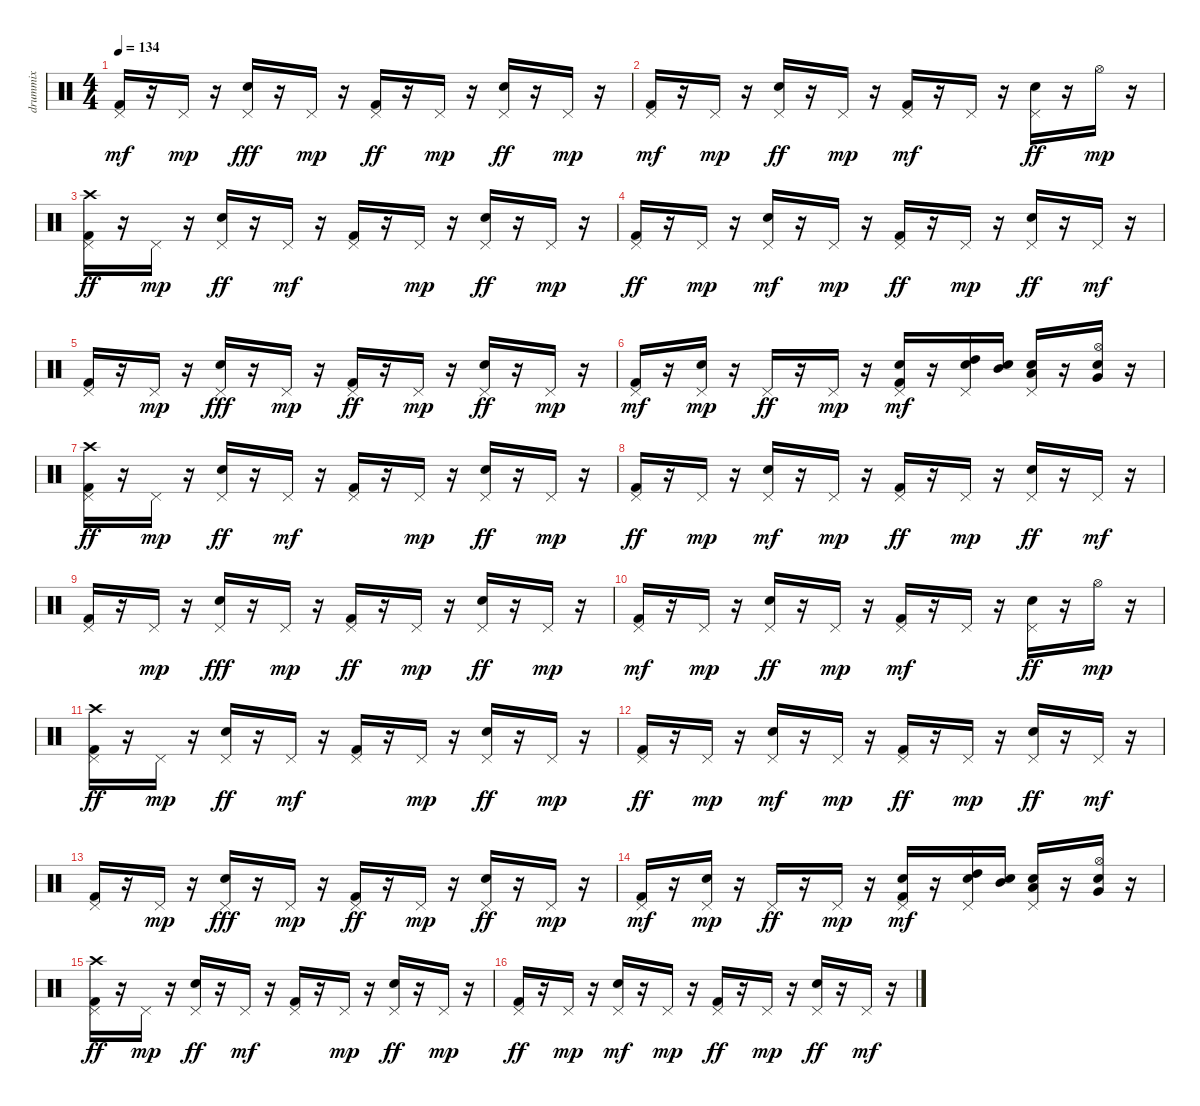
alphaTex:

\track ("drummix" "drummix") {instrument percussion}
\staff {score}
\articulation defaults
\ts (4 4)
\tempo 134
\clef neutral
\ks c
("Kick (hit) 2" "Pedal Hi-Hat (hit)").16{dy mf} r.16 "Pedal Hi-Hat (hit)".16{dy mp} r.16 ("Snare (hit) 2" "Pedal Hi-Hat (hit)").16{dy fff} r.16 "Pedal Hi-Hat (hit)".16{dy mp} r.16 ("Kick (hit) 2" "Pedal Hi-Hat (hit)").16{dy ff} r.16 "Pedal Hi-Hat (hit)".16{dy mp} r.16 ("Snare (hit) 2" "Pedal Hi-Hat (hit)").16{dy ff} r.16 "Pedal Hi-Hat (hit)".16{dy mp} r.16 |
("Kick (hit) 2" "Pedal Hi-Hat (hit)").16{dy mf} r.16 "Pedal Hi-Hat (hit)".16{dy mp} r.16 ("Snare (hit) 2" "Pedal Hi-Hat (hit)").16{dy ff} r.16 "Pedal Hi-Hat (hit)".16{dy mp} r.16 ("Kick (hit) 2" "Pedal Hi-Hat (hit)").16{dy mf} r.16 "Pedal Hi-Hat (hit)".16 r.16 ("Snare (hit) 2" "Pedal Hi-Hat (hit)").16{dy ff} r.16 "Hi-Hat (open)".16{dy mp} r.16 |
("Kick (hit) 2" "Pedal Hi-Hat (hit)" "Crash high (hit)").16{dy ff} r.16 "Pedal Hi-Hat (hit)".16{dy mp} r.16 ("Snare (hit) 2" "Pedal Hi-Hat (hit)").16{dy ff} r.16 "Pedal Hi-Hat (hit)".16{dy mf} r.16 ("Kick (hit) 2" "Pedal Hi-Hat (hit)").16 r.16 "Pedal Hi-Hat (hit)".16{dy mp} r.16 ("Snare (hit) 2" "Pedal Hi-Hat (hit)").16{dy ff} r.16 "Pedal Hi-Hat (hit)".16{dy mp} r.16 |
("Kick (hit) 2" "Pedal Hi-Hat (hit)").16{dy ff} r.16 "Pedal Hi-Hat (hit)".16{dy mp} r.16 ("Snare (hit) 2" "Pedal Hi-Hat (hit)").16{dy mf} r.16 "Pedal Hi-Hat (hit)".16{dy mp} r.16 ("Kick (hit) 2" "Pedal Hi-Hat (hit)").16{dy ff} r.16 "Pedal Hi-Hat (hit)".16{dy mp} r.16 ("Snare (hit) 2" "Pedal Hi-Hat (hit)").16{dy ff} r.16 "Pedal Hi-Hat (hit)".16{dy mf} r.16 |
("Kick (hit) 2" "Pedal Hi-Hat (hit)").16 r.16 "Pedal Hi-Hat (hit)".16{dy mp} r.16 ("Snare (hit) 2" "Pedal Hi-Hat (hit)").16{dy fff} r.16 "Pedal Hi-Hat (hit)".16{dy mp} r.16 ("Kick (hit) 2" "Pedal Hi-Hat (hit)").16{dy ff} r.16 "Pedal Hi-Hat (hit)".16{dy mp} r.16 ("Snare (hit) 2" "Pedal Hi-Hat (hit)").16{dy ff} r.16 "Pedal Hi-Hat (hit)".16{dy mp} r.16 |
("Kick (hit) 2" "Pedal Hi-Hat (hit)").16{dy mf} r.16 ("Snare (hit) 2" "Pedal Hi-Hat (hit)").16{dy mp} r.16 "Pedal Hi-Hat (hit)".16{dy ff} r.16 "Pedal Hi-Hat (hit)".16{dy mp} r.16 ("Kick (hit) 2" "Snare (hit) 2" "Pedal Hi-Hat (hit)").16{dy mf} r.16 ("Snare (hit) 2" "Pedal Hi-Hat (hit)" "High Tom (hit)").16 ("Snare (hit) 2" "Mid Tom (hit)").16 ("Snare (hit) 2" "Pedal Hi-Hat (hit)" "Low Tom (hit)").16 r.16 ("Snare (hit) 2" "Hi-Hat (open)" "Very Low Tom (hit)").16 r.16 |
("Kick (hit) 2" "Pedal Hi-Hat (hit)" "Crash high (hit)").16{dy ff} r.16 "Pedal Hi-Hat (hit)".16{dy mp} r.16 ("Snare (hit) 2" "Pedal Hi-Hat (hit)").16{dy ff} r.16 "Pedal Hi-Hat (hit)".16{dy mf} r.16 ("Kick (hit) 2" "Pedal Hi-Hat (hit)").16 r.16 "Pedal Hi-Hat (hit)".16{dy mp} r.16 ("Snare (hit) 2" "Pedal Hi-Hat (hit)").16{dy ff} r.16 "Pedal Hi-Hat (hit)".16{dy mp} r.16 |
("Kick (hit) 2" "Pedal Hi-Hat (hit)").16{dy ff} r.16 "Pedal Hi-Hat (hit)".16{dy mp} r.16 ("Snare (hit) 2" "Pedal Hi-Hat (hit)").16{dy mf} r.16 "Pedal Hi-Hat (hit)".16{dy mp} r.16 ("Kick (hit) 2" "Pedal Hi-Hat (hit)").16{dy ff} r.16 "Pedal Hi-Hat (hit)".16{dy mp} r.16 ("Snare (hit) 2" "Pedal Hi-Hat (hit)").16{dy ff} r.16 "Pedal Hi-Hat (hit)".16{dy mf} r.16 |
("Kick (hit) 2" "Pedal Hi-Hat (hit)").16 r.16 "Pedal Hi-Hat (hit)".16{dy mp} r.16 ("Snare (hit) 2" "Pedal Hi-Hat (hit)").16{dy fff} r.16 "Pedal Hi-Hat (hit)".16{dy mp} r.16 ("Kick (hit) 2" "Pedal Hi-Hat (hit)").16{dy ff} r.16 "Pedal Hi-Hat (hit)".16{dy mp} r.16 ("Snare (hit) 2" "Pedal Hi-Hat (hit)").16{dy ff} r.16 "Pedal Hi-Hat (hit)".16{dy mp} r.16 |
("Kick (hit) 2" "Pedal Hi-Hat (hit)").16{dy mf} r.16 "Pedal Hi-Hat (hit)".16{dy mp} r.16 ("Snare (hit) 2" "Pedal Hi-Hat (hit)").16{dy ff} r.16 "Pedal Hi-Hat (hit)".16{dy mp} r.16 ("Kick (hit) 2" "Pedal Hi-Hat (hit)").16{dy mf} r.16 "Pedal Hi-Hat (hit)".16 r.16 ("Snare (hit) 2" "Pedal Hi-Hat (hit)").16{dy ff} r.16 "Hi-Hat (open)".16{dy mp} r.16 |
("Kick (hit) 2" "Pedal Hi-Hat (hit)" "Crash high (hit)").16{dy ff} r.16 "Pedal Hi-Hat (hit)".16{dy mp} r.16 ("Snare (hit) 2" "Pedal Hi-Hat (hit)").16{dy ff} r.16 "Pedal Hi-Hat (hit)".16{dy mf} r.16 ("Kick (hit) 2" "Pedal Hi-Hat (hit)").16 r.16 "Pedal Hi-Hat (hit)".16{dy mp} r.16 ("Snare (hit) 2" "Pedal Hi-Hat (hit)").16{dy ff} r.16 "Pedal Hi-Hat (hit)".16{dy mp} r.16 |
("Kick (hit) 2" "Pedal Hi-Hat (hit)").16{dy ff} r.16 "Pedal Hi-Hat (hit)".16{dy mp} r.16 ("Snare (hit) 2" "Pedal Hi-Hat (hit)").16{dy mf} r.16 "Pedal Hi-Hat (hit)".16{dy mp} r.16 ("Kick (hit) 2" "Pedal Hi-Hat (hit)").16{dy ff} r.16 "Pedal Hi-Hat (hit)".16{dy mp} r.16 ("Snare (hit) 2" "Pedal Hi-Hat (hit)").16{dy ff} r.16 "Pedal Hi-Hat (hit)".16{dy mf} r.16 |
("Kick (hit) 2" "Pedal Hi-Hat (hit)").16 r.16 "Pedal Hi-Hat (hit)".16{dy mp} r.16 ("Snare (hit) 2" "Pedal Hi-Hat (hit)").16{dy fff} r.16 "Pedal Hi-Hat (hit)".16{dy mp} r.16 ("Kick (hit) 2" "Pedal Hi-Hat (hit)").16{dy ff} r.16 "Pedal Hi-Hat (hit)".16{dy mp} r.16 ("Snare (hit) 2" "Pedal Hi-Hat (hit)").16{dy ff} r.16 "Pedal Hi-Hat (hit)".16{dy mp} r.16 |
("Kick (hit) 2" "Pedal Hi-Hat (hit)").16{dy mf} r.16 ("Snare (hit) 2" "Pedal Hi-Hat (hit)").16{dy mp} r.16 "Pedal Hi-Hat (hit)".16{dy ff} r.16 "Pedal Hi-Hat (hit)".16{dy mp} r.16 ("Kick (hit) 2" "Snare (hit) 2" "Pedal Hi-Hat (hit)").16{dy mf} r.16 ("Snare (hit) 2" "Pedal Hi-Hat (hit)" "High Tom (hit)").16 ("Snare (hit) 2" "Mid Tom (hit)").16 ("Snare (hit) 2" "Pedal Hi-Hat (hit)" "Low Tom (hit)").16 r.16 ("Snare (hit) 2" "Hi-Hat (open)" "Very Low Tom (hit)").16 r.16 |
("Kick (hit) 2" "Pedal Hi-Hat (hit)" "Crash high (hit)").16{dy ff} r.16 "Pedal Hi-Hat (hit)".16{dy mp} r.16 ("Snare (hit) 2" "Pedal Hi-Hat (hit)").16{dy ff} r.16 "Pedal Hi-Hat (hit)".16{dy mf} r.16 ("Kick (hit) 2" "Pedal Hi-Hat (hit)").16 r.16 "Pedal Hi-Hat (hit)".16{dy mp} r.16 ("Snare (hit) 2" "Pedal Hi-Hat (hit)").16{dy ff} r.16 "Pedal Hi-Hat (hit)".16{dy mp} r.16 |
("Kick (hit) 2" "Pedal Hi-Hat (hit)").16{dy ff} r.16 "Pedal Hi-Hat (hit)".16{dy mp} r.16 ("Snare (hit) 2" "Pedal Hi-Hat (hit)").16{dy mf} r.16 "Pedal Hi-Hat (hit)".16{dy mp} r.16 ("Kick (hit) 2" "Pedal Hi-Hat (hit)").16{dy ff} r.16 "Pedal Hi-Hat (hit)".16{dy mp} r.16 ("Snare (hit) 2" "Pedal Hi-Hat (hit)").16{dy ff} r.16 "Pedal Hi-Hat (hit)".16{dy mf} r.16
